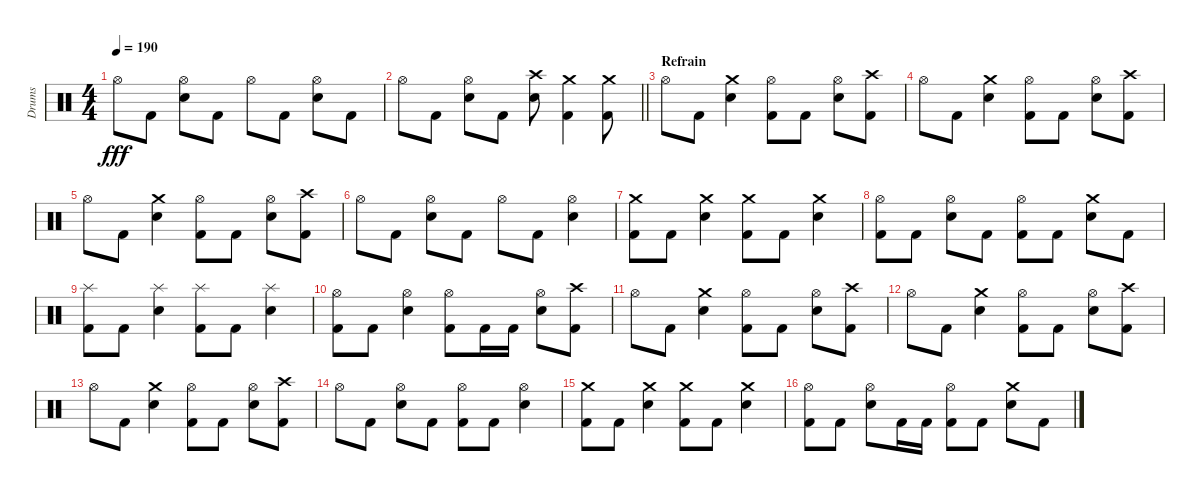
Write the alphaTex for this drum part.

\track ("Drums" "Drums") {instrument percussion}
\staff {score}
\articulation defaults
\ts (4 4)
\tempo 190
\clef neutral
\ks c "Hi-Hat (open)".8{dy fff} "Kick (hit) 2".8
("Electric Snare (hit)" "Hi-Hat (open)").8 "Kick (hit) 2".8 "Hi-Hat (open)".8 "Kick (hit) 2".8 ("Electric Snare (hit)" "Hi-Hat (open)").8 "Kick (hit) 2".8 |
\barLineRight lightlight "Hi-Hat (open)".8 "Kick (hit) 2".8
("Electric Snare (hit)" "Hi-Hat (open)").8 "Kick (hit) 2".8 ("Electric Snare (hit)" "Crash high (hit)").8 ("Kick (hit) 2" "Crash medium (hit)").4 ("Kick (hit) 2" "Crash medium (hit)").8 |
\section ("" "Refrain")
"Hi-Hat (open)".8 "Kick (hit) 2".8 ("Electric Snare (hit)" "Crash medium (hit)").4 ("Kick (hit) 2" "Hi-Hat (open)").8 "Kick (hit) 2".8 ("Electric Snare (hit)" "Hi-Hat (open)").8 ("Kick (hit) 2" "Crash high (hit)").8 |
"Hi-Hat (open)".8 "Kick (hit) 2".8 ("Electric Snare (hit)" "Crash medium (hit)").4 ("Kick (hit) 2" "Hi-Hat (open)").8 "Kick (hit) 2".8 ("Electric Snare (hit)" "Hi-Hat (open)").8 ("Kick (hit) 2" "Crash high (hit)").8 |
"Hi-Hat (open)".8 "Kick (hit) 2".8 ("Electric Snare (hit)" "Crash medium (hit)").4 ("Kick (hit) 2" "Hi-Hat (open)").8 "Kick (hit) 2".8 ("Electric Snare (hit)" "Hi-Hat (open)").8 ("Kick (hit) 2" "Crash high (hit)").8 |
"Hi-Hat (open)".8 "Kick (hit) 2".8 ("Electric Snare (hit)" "Hi-Hat (open)").8 "Kick (hit) 2".8 "Hi-Hat (open)".8 "Kick (hit) 2".8 ("Electric Snare (hit)" "Hi-Hat (open)").4 |
("Kick (hit) 2" "Crash medium (hit)").8 "Kick (hit) 2".8 ("Electric Snare (hit)" "Crash medium (hit)").4 ("Kick (hit) 2" "Crash medium (hit)").8 "Kick (hit) 2".8 ("Electric Snare (hit)" "Crash medium (hit)").4 |
("Kick (hit) 2" "Hi-Hat (open)").8 "Kick (hit) 2".8 ("Electric Snare (hit)" "Hi-Hat (open)").8 "Kick (hit) 2".8 ("Kick (hit) 2" "Hi-Hat (open)").8 "Kick (hit) 2".8 ("Electric Snare (hit)" "Crash medium (hit)").8 "Kick (hit) 2".8 |
("Kick (hit) 2" "Splash (hit)").8 "Kick (hit) 2".8 ("Electric Snare (hit)" "Splash (hit)").4 ("Kick (hit) 2" "Splash (hit)").8 "Kick (hit) 2".8 ("Electric Snare (hit)" "Splash (hit)").4 |
("Kick (hit) 2" "Hi-Hat (open)").8 "Kick (hit) 2".8 ("Electric Snare (hit)" "Hi-Hat (open)").4 ("Kick (hit) 2" "Hi-Hat (open)").8 "Kick (hit) 2".16 "Kick (hit) 2".16 ("Electric Snare (hit)" "Hi-Hat (open)").8 ("Kick (hit) 2" "Crash high (hit)").8 |
"Hi-Hat (open)".8 "Kick (hit) 2".8 ("Electric Snare (hit)" "Crash medium (hit)").4 ("Kick (hit) 2" "Hi-Hat (open)").8 "Kick (hit) 2".8 ("Electric Snare (hit)" "Hi-Hat (open)").8 ("Kick (hit) 2" "Crash high (hit)").8 |
"Hi-Hat (open)".8 "Kick (hit) 2".8 ("Electric Snare (hit)" "Crash medium (hit)").4 ("Kick (hit) 2" "Hi-Hat (open)").8 "Kick (hit) 2".8 ("Electric Snare (hit)" "Hi-Hat (open)").8 ("Kick (hit) 2" "Crash high (hit)").8 |
"Hi-Hat (open)".8 "Kick (hit) 2".8 ("Electric Snare (hit)" "Crash medium (hit)").4 ("Kick (hit) 2" "Hi-Hat (open)").8 "Kick (hit) 2".8 ("Electric Snare (hit)" "Hi-Hat (open)").8 ("Kick (hit) 2" "Crash high (hit)").8 |
"Hi-Hat (open)".8 "Kick (hit) 2".8 ("Electric Snare (hit)" "Hi-Hat (open)").8 "Kick (hit) 2".8 ("Kick (hit) 2" "Hi-Hat (open)").8 "Kick (hit) 2".8 ("Electric Snare (hit)" "Hi-Hat (open)").4 |
("Kick (hit) 2" "Crash medium (hit)").8 "Kick (hit) 2".8 ("Electric Snare (hit)" "Crash medium (hit)").4 ("Kick (hit) 2" "Crash medium (hit)").8 "Kick (hit) 2".8 ("Electric Snare (hit)" "Crash medium (hit)").4 |
("Kick (hit) 2" "Hi-Hat (open)").8 "Kick (hit) 2".8 ("Electric Snare (hit)" "Hi-Hat (open)").8 "Kick (hit) 2".16 "Kick (hit) 2".16 ("Kick (hit) 2" "Hi-Hat (open)").8 "Kick (hit) 2".8 ("Electric Snare (hit)" "Crash medium (hit)").8 "Kick (hit) 2".8
